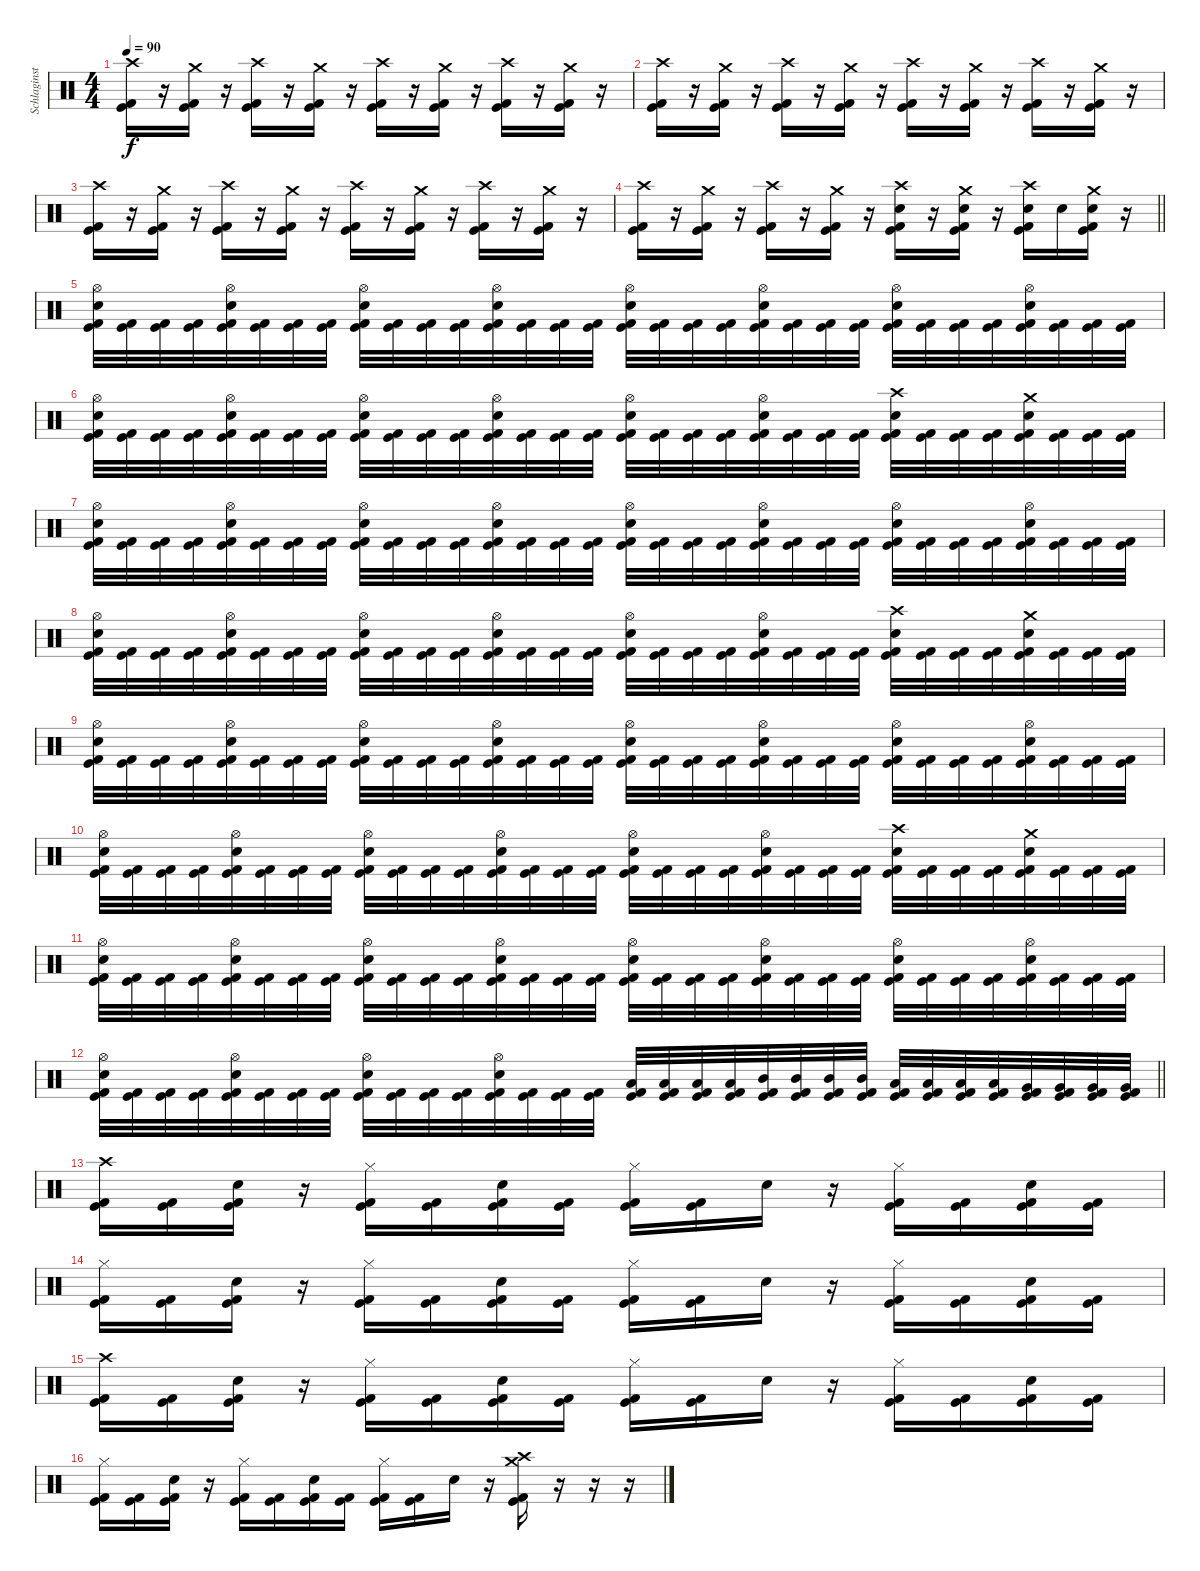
\track ("Schlaginstrumente - Auswahl" "Schlaginst") {instrument percussion}
\staff {score}
\articulation defaults
\ts (4 4)
\tempo 90
\clef neutral
\ks c
("Crash high (hit)" "Kick (hit)" "Kick (hit) 2").16{dy f} r.16 ("Crash medium (hit)" "Kick (hit)" "Kick (hit) 2").16 r.16 ("Crash high (hit)" "Kick (hit)" "Kick (hit) 2").16 r.16 ("Crash medium (hit)" "Kick (hit)" "Kick (hit) 2").16 r.16 ("Crash high (hit)" "Kick (hit)" "Kick (hit) 2").16 r.16 ("Crash medium (hit)" "Kick (hit)" "Kick (hit) 2").16 r.16 ("Crash high (hit)" "Kick (hit)" "Kick (hit) 2").16 r.16 ("Crash medium (hit)" "Kick (hit)" "Kick (hit) 2").16 r.16 |
("Crash high (hit)" "Kick (hit)" "Kick (hit) 2").16 r.16 ("Crash medium (hit)" "Kick (hit)" "Kick (hit) 2").16 r.16 ("Crash high (hit)" "Kick (hit)" "Kick (hit) 2").16 r.16 ("Crash medium (hit)" "Kick (hit)" "Kick (hit) 2").16 r.16 ("Crash high (hit)" "Kick (hit)" "Kick (hit) 2").16 r.16 ("Crash medium (hit)" "Kick (hit)" "Kick (hit) 2").16 r.16 ("Crash high (hit)" "Kick (hit)" "Kick (hit) 2").16 r.16 ("Crash medium (hit)" "Kick (hit)" "Kick (hit) 2").16 r.16 |
("Crash high (hit)" "Kick (hit)" "Kick (hit) 2").16 r.16 ("Crash medium (hit)" "Kick (hit)" "Kick (hit) 2").16 r.16 ("Crash high (hit)" "Kick (hit)" "Kick (hit) 2").16 r.16 ("Crash medium (hit)" "Kick (hit)" "Kick (hit) 2").16 r.16 ("Crash high (hit)" "Kick (hit)" "Kick (hit) 2").16 r.16 ("Crash medium (hit)" "Kick (hit)" "Kick (hit) 2").16 r.16 ("Crash high (hit)" "Kick (hit)" "Kick (hit) 2").16 r.16 ("Crash medium (hit)" "Kick (hit)" "Kick (hit) 2").16 r.16 |
\barLineRight lightlight
("Crash high (hit)" "Kick (hit)" "Kick (hit) 2").16 r.16 ("Crash medium (hit)" "Kick (hit)" "Kick (hit) 2").16 r.16 ("Crash high (hit)" "Kick (hit)" "Kick (hit) 2").16 r.16 ("Crash medium (hit)" "Kick (hit)" "Kick (hit) 2").16 r.16 ("Crash high (hit)" "Electric Snare (hit)" "Kick (hit)" "Kick (hit) 2").16 r.16 ("Crash medium (hit)" "Electric Snare (hit)" "Kick (hit)" "Kick (hit) 2").16 r.16 ("Crash high (hit)" "Electric Snare (hit)" "Kick (hit)" "Kick (hit) 2").16 "Electric Snare (hit)".16 ("Crash medium (hit)" "Electric Snare (hit)" "Kick (hit)" "Kick (hit) 2").16 r.16 |
("Hi-Hat (open)" "Electric Snare (hit)" "Kick (hit)" "Kick (hit) 2").32 ("Kick (hit)" "Kick (hit) 2").32 ("Kick (hit)" "Kick (hit) 2").32 ("Kick (hit)" "Kick (hit) 2").32 ("Hi-Hat (open)" "Electric Snare (hit)" "Kick (hit)" "Kick (hit) 2").32 ("Kick (hit)" "Kick (hit) 2").32 ("Kick (hit)" "Kick (hit) 2").32 ("Kick (hit)" "Kick (hit) 2").32 ("Hi-Hat (open)" "Electric Snare (hit)" "Kick (hit)" "Kick (hit) 2").32 ("Kick (hit)" "Kick (hit) 2").32 ("Kick (hit)" "Kick (hit) 2").32 ("Kick (hit)" "Kick (hit) 2").32 ("Hi-Hat (open)" "Electric Snare (hit)" "Kick (hit)" "Kick (hit) 2").32 ("Kick (hit)" "Kick (hit) 2").32 ("Kick (hit)" "Kick (hit) 2").32 ("Kick (hit)" "Kick (hit) 2").32 ("Hi-Hat (open)" "Electric Snare (hit)" "Kick (hit)" "Kick (hit) 2").32 ("Kick (hit)" "Kick (hit) 2").32 ("Kick (hit)" "Kick (hit) 2").32 ("Kick (hit)" "Kick (hit) 2").32 ("Hi-Hat (open)" "Electric Snare (hit)" "Kick (hit)" "Kick (hit) 2").32 ("Kick (hit)" "Kick (hit) 2").32 ("Kick (hit)" "Kick (hit) 2").32 ("Kick (hit)" "Kick (hit) 2").32 ("Hi-Hat (open)" "Electric Snare (hit)" "Kick (hit)" "Kick (hit) 2").32 ("Kick (hit)" "Kick (hit) 2").32 ("Kick (hit)" "Kick (hit) 2").32 ("Kick (hit)" "Kick (hit) 2").32 ("Hi-Hat (open)" "Electric Snare (hit)" "Kick (hit)" "Kick (hit) 2").32 ("Kick (hit)" "Kick (hit) 2").32 ("Kick (hit)" "Kick (hit) 2").32 ("Kick (hit)" "Kick (hit) 2").32 |
("Hi-Hat (open)" "Electric Snare (hit)" "Kick (hit)" "Kick (hit) 2").32 ("Kick (hit)" "Kick (hit) 2").32 ("Kick (hit)" "Kick (hit) 2").32 ("Kick (hit)" "Kick (hit) 2").32 ("Hi-Hat (open)" "Electric Snare (hit)" "Kick (hit)" "Kick (hit) 2").32 ("Kick (hit)" "Kick (hit) 2").32 ("Kick (hit)" "Kick (hit) 2").32 ("Kick (hit)" "Kick (hit) 2").32 ("Hi-Hat (open)" "Electric Snare (hit)" "Kick (hit)" "Kick (hit) 2").32 ("Kick (hit)" "Kick (hit) 2").32 ("Kick (hit)" "Kick (hit) 2").32 ("Kick (hit)" "Kick (hit) 2").32 ("Hi-Hat (open)" "Electric Snare (hit)" "Kick (hit)" "Kick (hit) 2").32 ("Kick (hit)" "Kick (hit) 2").32 ("Kick (hit)" "Kick (hit) 2").32 ("Kick (hit)" "Kick (hit) 2").32 ("Hi-Hat (open)" "Electric Snare (hit)" "Kick (hit)" "Kick (hit) 2").32 ("Kick (hit)" "Kick (hit) 2").32 ("Kick (hit)" "Kick (hit) 2").32 ("Kick (hit)" "Kick (hit) 2").32 ("Hi-Hat (open)" "Electric Snare (hit)" "Kick (hit)" "Kick (hit) 2").32 ("Kick (hit)" "Kick (hit) 2").32 ("Kick (hit)" "Kick (hit) 2").32 ("Kick (hit)" "Kick (hit) 2").32 ("Crash high (hit)" "Electric Snare (hit)" "Kick (hit)" "Kick (hit) 2").32 ("Kick (hit)" "Kick (hit) 2").32 ("Kick (hit)" "Kick (hit) 2").32 ("Kick (hit)" "Kick (hit) 2").32 ("Crash medium (hit)" "Electric Snare (hit)" "Kick (hit)" "Kick (hit) 2").32 ("Kick (hit)" "Kick (hit) 2").32 ("Kick (hit)" "Kick (hit) 2").32 ("Kick (hit)" "Kick (hit) 2").32 |
("Hi-Hat (open)" "Electric Snare (hit)" "Kick (hit)" "Kick (hit) 2").32 ("Kick (hit)" "Kick (hit) 2").32 ("Kick (hit)" "Kick (hit) 2").32 ("Kick (hit)" "Kick (hit) 2").32 ("Hi-Hat (open)" "Electric Snare (hit)" "Kick (hit)" "Kick (hit) 2").32 ("Kick (hit)" "Kick (hit) 2").32 ("Kick (hit)" "Kick (hit) 2").32 ("Kick (hit)" "Kick (hit) 2").32 ("Hi-Hat (open)" "Electric Snare (hit)" "Kick (hit)" "Kick (hit) 2").32 ("Kick (hit)" "Kick (hit) 2").32 ("Kick (hit)" "Kick (hit) 2").32 ("Kick (hit)" "Kick (hit) 2").32 ("Hi-Hat (open)" "Electric Snare (hit)" "Kick (hit)" "Kick (hit) 2").32 ("Kick (hit)" "Kick (hit) 2").32 ("Kick (hit)" "Kick (hit) 2").32 ("Kick (hit)" "Kick (hit) 2").32 ("Hi-Hat (open)" "Electric Snare (hit)" "Kick (hit)" "Kick (hit) 2").32 ("Kick (hit)" "Kick (hit) 2").32 ("Kick (hit)" "Kick (hit) 2").32 ("Kick (hit)" "Kick (hit) 2").32 ("Hi-Hat (open)" "Electric Snare (hit)" "Kick (hit)" "Kick (hit) 2").32 ("Kick (hit)" "Kick (hit) 2").32 ("Kick (hit)" "Kick (hit) 2").32 ("Kick (hit)" "Kick (hit) 2").32 ("Hi-Hat (open)" "Electric Snare (hit)" "Kick (hit)" "Kick (hit) 2").32 ("Kick (hit)" "Kick (hit) 2").32 ("Kick (hit)" "Kick (hit) 2").32 ("Kick (hit)" "Kick (hit) 2").32 ("Hi-Hat (open)" "Electric Snare (hit)" "Kick (hit)" "Kick (hit) 2").32 ("Kick (hit)" "Kick (hit) 2").32 ("Kick (hit)" "Kick (hit) 2").32 ("Kick (hit)" "Kick (hit) 2").32 |
("Hi-Hat (open)" "Electric Snare (hit)" "Kick (hit)" "Kick (hit) 2").32 ("Kick (hit)" "Kick (hit) 2").32 ("Kick (hit)" "Kick (hit) 2").32 ("Kick (hit)" "Kick (hit) 2").32 ("Hi-Hat (open)" "Electric Snare (hit)" "Kick (hit)" "Kick (hit) 2").32 ("Kick (hit)" "Kick (hit) 2").32 ("Kick (hit)" "Kick (hit) 2").32 ("Kick (hit)" "Kick (hit) 2").32 ("Hi-Hat (open)" "Electric Snare (hit)" "Kick (hit)" "Kick (hit) 2").32 ("Kick (hit)" "Kick (hit) 2").32 ("Kick (hit)" "Kick (hit) 2").32 ("Kick (hit)" "Kick (hit) 2").32 ("Hi-Hat (open)" "Electric Snare (hit)" "Kick (hit)" "Kick (hit) 2").32 ("Kick (hit)" "Kick (hit) 2").32 ("Kick (hit)" "Kick (hit) 2").32 ("Kick (hit)" "Kick (hit) 2").32 ("Hi-Hat (open)" "Electric Snare (hit)" "Kick (hit)" "Kick (hit) 2").32 ("Kick (hit)" "Kick (hit) 2").32 ("Kick (hit)" "Kick (hit) 2").32 ("Kick (hit)" "Kick (hit) 2").32 ("Hi-Hat (open)" "Electric Snare (hit)" "Kick (hit)" "Kick (hit) 2").32 ("Kick (hit)" "Kick (hit) 2").32 ("Kick (hit)" "Kick (hit) 2").32 ("Kick (hit)" "Kick (hit) 2").32 ("Crash high (hit)" "Electric Snare (hit)" "Kick (hit)" "Kick (hit) 2").32 ("Kick (hit)" "Kick (hit) 2").32 ("Kick (hit)" "Kick (hit) 2").32 ("Kick (hit)" "Kick (hit) 2").32 ("Crash medium (hit)" "Electric Snare (hit)" "Kick (hit)" "Kick (hit) 2").32 ("Kick (hit)" "Kick (hit) 2").32 ("Kick (hit)" "Kick (hit) 2").32 ("Kick (hit)" "Kick (hit) 2").32 |
("Hi-Hat (open)" "Electric Snare (hit)" "Kick (hit)" "Kick (hit) 2").32 ("Kick (hit)" "Kick (hit) 2").32 ("Kick (hit)" "Kick (hit) 2").32 ("Kick (hit)" "Kick (hit) 2").32 ("Hi-Hat (open)" "Electric Snare (hit)" "Kick (hit)" "Kick (hit) 2").32 ("Kick (hit)" "Kick (hit) 2").32 ("Kick (hit)" "Kick (hit) 2").32 ("Kick (hit)" "Kick (hit) 2").32 ("Hi-Hat (open)" "Electric Snare (hit)" "Kick (hit)" "Kick (hit) 2").32 ("Kick (hit)" "Kick (hit) 2").32 ("Kick (hit)" "Kick (hit) 2").32 ("Kick (hit)" "Kick (hit) 2").32 ("Hi-Hat (open)" "Electric Snare (hit)" "Kick (hit)" "Kick (hit) 2").32 ("Kick (hit)" "Kick (hit) 2").32 ("Kick (hit)" "Kick (hit) 2").32 ("Kick (hit)" "Kick (hit) 2").32 ("Hi-Hat (open)" "Electric Snare (hit)" "Kick (hit)" "Kick (hit) 2").32 ("Kick (hit)" "Kick (hit) 2").32 ("Kick (hit)" "Kick (hit) 2").32 ("Kick (hit)" "Kick (hit) 2").32 ("Hi-Hat (open)" "Electric Snare (hit)" "Kick (hit)" "Kick (hit) 2").32 ("Kick (hit)" "Kick (hit) 2").32 ("Kick (hit)" "Kick (hit) 2").32 ("Kick (hit)" "Kick (hit) 2").32 ("Hi-Hat (open)" "Electric Snare (hit)" "Kick (hit)" "Kick (hit) 2").32 ("Kick (hit)" "Kick (hit) 2").32 ("Kick (hit)" "Kick (hit) 2").32 ("Kick (hit)" "Kick (hit) 2").32 ("Hi-Hat (open)" "Electric Snare (hit)" "Kick (hit)" "Kick (hit) 2").32 ("Kick (hit)" "Kick (hit) 2").32 ("Kick (hit)" "Kick (hit) 2").32 ("Kick (hit)" "Kick (hit) 2").32 |
("Hi-Hat (open)" "Electric Snare (hit)" "Kick (hit)" "Kick (hit) 2").32 ("Kick (hit)" "Kick (hit) 2").32 ("Kick (hit)" "Kick (hit) 2").32 ("Kick (hit)" "Kick (hit) 2").32 ("Hi-Hat (open)" "Electric Snare (hit)" "Kick (hit)" "Kick (hit) 2").32 ("Kick (hit)" "Kick (hit) 2").32 ("Kick (hit)" "Kick (hit) 2").32 ("Kick (hit)" "Kick (hit) 2").32 ("Hi-Hat (open)" "Electric Snare (hit)" "Kick (hit)" "Kick (hit) 2").32 ("Kick (hit)" "Kick (hit) 2").32 ("Kick (hit)" "Kick (hit) 2").32 ("Kick (hit)" "Kick (hit) 2").32 ("Hi-Hat (open)" "Electric Snare (hit)" "Kick (hit)" "Kick (hit) 2").32 ("Kick (hit)" "Kick (hit) 2").32 ("Kick (hit)" "Kick (hit) 2").32 ("Kick (hit)" "Kick (hit) 2").32 ("Hi-Hat (open)" "Electric Snare (hit)" "Kick (hit)" "Kick (hit) 2").32 ("Kick (hit)" "Kick (hit) 2").32 ("Kick (hit)" "Kick (hit) 2").32 ("Kick (hit)" "Kick (hit) 2").32 ("Hi-Hat (open)" "Electric Snare (hit)" "Kick (hit)" "Kick (hit) 2").32 ("Kick (hit)" "Kick (hit) 2").32 ("Kick (hit)" "Kick (hit) 2").32 ("Kick (hit)" "Kick (hit) 2").32 ("Crash high (hit)" "Electric Snare (hit)" "Kick (hit)" "Kick (hit) 2").32 ("Kick (hit)" "Kick (hit) 2").32 ("Kick (hit)" "Kick (hit) 2").32 ("Kick (hit)" "Kick (hit) 2").32 ("Crash medium (hit)" "Electric Snare (hit)" "Kick (hit)" "Kick (hit) 2").32 ("Kick (hit)" "Kick (hit) 2").32 ("Kick (hit)" "Kick (hit) 2").32 ("Kick (hit)" "Kick (hit) 2").32 |
("Hi-Hat (open)" "Electric Snare (hit)" "Kick (hit)" "Kick (hit) 2").32 ("Kick (hit)" "Kick (hit) 2").32 ("Kick (hit)" "Kick (hit) 2").32 ("Kick (hit)" "Kick (hit) 2").32 ("Hi-Hat (open)" "Electric Snare (hit)" "Kick (hit)" "Kick (hit) 2").32 ("Kick (hit)" "Kick (hit) 2").32 ("Kick (hit)" "Kick (hit) 2").32 ("Kick (hit)" "Kick (hit) 2").32 ("Hi-Hat (open)" "Electric Snare (hit)" "Kick (hit)" "Kick (hit) 2").32 ("Kick (hit)" "Kick (hit) 2").32 ("Kick (hit)" "Kick (hit) 2").32 ("Kick (hit)" "Kick (hit) 2").32 ("Hi-Hat (open)" "Electric Snare (hit)" "Kick (hit)" "Kick (hit) 2").32 ("Kick (hit)" "Kick (hit) 2").32 ("Kick (hit)" "Kick (hit) 2").32 ("Kick (hit)" "Kick (hit) 2").32 ("Hi-Hat (open)" "Electric Snare (hit)" "Kick (hit)" "Kick (hit) 2").32 ("Kick (hit)" "Kick (hit) 2").32 ("Kick (hit)" "Kick (hit) 2").32 ("Kick (hit)" "Kick (hit) 2").32 ("Hi-Hat (open)" "Electric Snare (hit)" "Kick (hit)" "Kick (hit) 2").32 ("Kick (hit)" "Kick (hit) 2").32 ("Kick (hit)" "Kick (hit) 2").32 ("Kick (hit)" "Kick (hit) 2").32 ("Hi-Hat (open)" "Electric Snare (hit)" "Kick (hit)" "Kick (hit) 2").32 ("Kick (hit)" "Kick (hit) 2").32 ("Kick (hit)" "Kick (hit) 2").32 ("Kick (hit)" "Kick (hit) 2").32 ("Hi-Hat (open)" "Electric Snare (hit)" "Kick (hit)" "Kick (hit) 2").32 ("Kick (hit)" "Kick (hit) 2").32 ("Kick (hit)" "Kick (hit) 2").32 ("Kick (hit)" "Kick (hit) 2").32 |
\barLineRight lightlight
("Hi-Hat (open)" "Electric Snare (hit)" "Kick (hit)" "Kick (hit) 2").32 ("Kick (hit)" "Kick (hit) 2").32 ("Kick (hit)" "Kick (hit) 2").32 ("Kick (hit)" "Kick (hit) 2").32 ("Hi-Hat (open)" "Electric Snare (hit)" "Kick (hit)" "Kick (hit) 2").32 ("Kick (hit)" "Kick (hit) 2").32 ("Kick (hit)" "Kick (hit) 2").32 ("Kick (hit)" "Kick (hit) 2").32 ("Hi-Hat (open)" "Electric Snare (hit)" "Kick (hit)" "Kick (hit) 2").32 ("Kick (hit)" "Kick (hit) 2").32 ("Kick (hit)" "Kick (hit) 2").32 ("Kick (hit)" "Kick (hit) 2").32 ("Hi-Hat (open)" "Electric Snare (hit)" "Kick (hit)" "Kick (hit) 2").32 ("Kick (hit)" "Kick (hit) 2").32 ("Kick (hit)" "Kick (hit) 2").32 ("Kick (hit)" "Kick (hit) 2").32 ("Low Floor Tom (hit)" "Kick (hit)" "Kick (hit) 2").32 ("Low Floor Tom (hit)" "Kick (hit)" "Kick (hit) 2").32 ("Low Floor Tom (hit)" "Kick (hit)" "Kick (hit) 2").32 ("Low Floor Tom (hit)" "Kick (hit)" "Kick (hit) 2").32 ("Mid Tom (hit)" "Kick (hit)" "Kick (hit) 2").32 ("Mid Tom (hit)" "Kick (hit)" "Kick (hit) 2").32 ("Mid Tom (hit)" "Kick (hit)" "Kick (hit) 2").32 ("Mid Tom (hit)" "Kick (hit)" "Kick (hit) 2").32 ("Low Tom (hit)" "Kick (hit)" "Kick (hit) 2").32 ("Low Tom (hit)" "Kick (hit)" "Kick (hit) 2").32 ("Low Tom (hit)" "Kick (hit)" "Kick (hit) 2").32 ("Low Tom (hit)" "Kick (hit)" "Kick (hit) 2").32 ("Very Low Tom (hit)" "Kick (hit)" "Kick (hit) 2").32 ("Very Low Tom (hit)" "Kick (hit)" "Kick (hit) 2").32 ("Very Low Tom (hit)" "Kick (hit)" "Kick (hit) 2").32 ("Very Low Tom (hit)" "Kick (hit)" "Kick (hit) 2").32 |
("Crash high (hit)" "Kick (hit)" "Kick (hit) 2").16 ("Kick (hit)" "Kick (hit) 2").16 ("Electric Snare (hit)" "Kick (hit)" "Kick (hit) 2").16 r.16 ("Hi-Hat (closed)" "Kick (hit)" "Kick (hit) 2").16 ("Kick (hit)" "Kick (hit) 2").16 ("Electric Snare (hit)" "Kick (hit)" "Kick (hit) 2").16 ("Kick (hit)" "Kick (hit) 2").16 ("Hi-Hat (closed)" "Kick (hit)" "Kick (hit) 2").16 ("Kick (hit)" "Kick (hit) 2").16 "Electric Snare (hit)".16 r.16 ("Hi-Hat (closed)" "Kick (hit)" "Kick (hit) 2").16 ("Kick (hit)" "Kick (hit) 2").16 ("Electric Snare (hit)" "Kick (hit)" "Kick (hit) 2").16 ("Kick (hit)" "Kick (hit) 2").16 |
("Hi-Hat (closed)" "Kick (hit)" "Kick (hit) 2").16 ("Kick (hit)" "Kick (hit) 2").16 ("Electric Snare (hit)" "Kick (hit)" "Kick (hit) 2").16 r.16 ("Hi-Hat (closed)" "Kick (hit)" "Kick (hit) 2").16 ("Kick (hit)" "Kick (hit) 2").16 ("Electric Snare (hit)" "Kick (hit)" "Kick (hit) 2").16 ("Kick (hit)" "Kick (hit) 2").16 ("Hi-Hat (closed)" "Kick (hit)" "Kick (hit) 2").16 ("Kick (hit)" "Kick (hit) 2").16 "Electric Snare (hit)".16 r.16 ("Hi-Hat (closed)" "Kick (hit)" "Kick (hit) 2").16 ("Kick (hit)" "Kick (hit) 2").16 ("Electric Snare (hit)" "Kick (hit)" "Kick (hit) 2").16 ("Kick (hit)" "Kick (hit) 2").16 |
("Crash high (hit)" "Kick (hit)" "Kick (hit) 2").16 ("Kick (hit)" "Kick (hit) 2").16 ("Electric Snare (hit)" "Kick (hit)" "Kick (hit) 2").16 r.16 ("Hi-Hat (closed)" "Kick (hit)" "Kick (hit) 2").16 ("Kick (hit)" "Kick (hit) 2").16 ("Electric Snare (hit)" "Kick (hit)" "Kick (hit) 2").16 ("Kick (hit)" "Kick (hit) 2").16 ("Hi-Hat (closed)" "Kick (hit)" "Kick (hit) 2").16 ("Kick (hit)" "Kick (hit) 2").16 "Electric Snare (hit)".16 r.16 ("Hi-Hat (closed)" "Kick (hit)" "Kick (hit) 2").16 ("Kick (hit)" "Kick (hit) 2").16 ("Electric Snare (hit)" "Kick (hit)" "Kick (hit) 2").16 ("Kick (hit)" "Kick (hit) 2").16 |
("Hi-Hat (closed)" "Kick (hit)" "Kick (hit) 2").16 ("Kick (hit)" "Kick (hit) 2").16 ("Electric Snare (hit)" "Kick (hit)" "Kick (hit) 2").16 r.16 ("Hi-Hat (closed)" "Kick (hit)" "Kick (hit) 2").16 ("Kick (hit)" "Kick (hit) 2").16 ("Electric Snare (hit)" "Kick (hit)" "Kick (hit) 2").16 ("Kick (hit)" "Kick (hit) 2").16 ("Hi-Hat (closed)" "Kick (hit)" "Kick (hit) 2").16 ("Kick (hit)" "Kick (hit) 2").16 "Electric Snare (hit)".16 r.16 ("Crash high (hit)" "Crash medium (hit)" "Kick (hit)" "Kick (hit) 2").16 r.16 r.16 r.16
